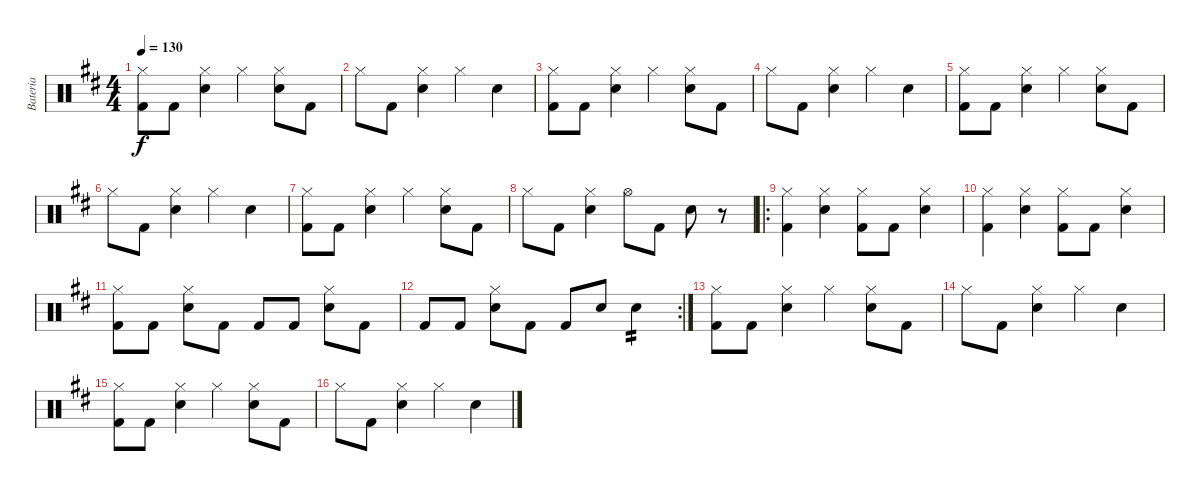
\track ("Bateria" "Bateria") {instrument percussion}
\staff {score}
\articulation defaults
\ts (4 4)
\tempo 130
\clef neutral
\ks d
("Hi-Hat (closed)" "Kick (hit) 2").8{dy f} "Kick (hit) 2".8 ("Hi-Hat (closed)" "Electric Snare (hit)").4 "Hi-Hat (closed)".4 ("Hi-Hat (closed)" "Electric Snare (hit)").8 "Kick (hit) 2".8 |
"Hi-Hat (closed)".8 "Kick (hit) 2".8 ("Hi-Hat (closed)" "Electric Snare (hit)").4 "Hi-Hat (closed)".4 "Electric Snare (hit)".4 |
("Hi-Hat (closed)" "Kick (hit) 2").8 "Kick (hit) 2".8 ("Hi-Hat (closed)" "Electric Snare (hit)").4 "Hi-Hat (closed)".4 ("Hi-Hat (closed)" "Electric Snare (hit)").8 "Kick (hit) 2".8 |
"Hi-Hat (closed)".8 "Kick (hit) 2".8 ("Hi-Hat (closed)" "Electric Snare (hit)").4 "Hi-Hat (closed)".4 "Electric Snare (hit)".4 |
("Hi-Hat (closed)" "Kick (hit) 2").8 "Kick (hit) 2".8 ("Hi-Hat (closed)" "Electric Snare (hit)").4 "Hi-Hat (closed)".4 ("Hi-Hat (closed)" "Electric Snare (hit)").8 "Kick (hit) 2".8 |
"Hi-Hat (closed)".8 "Kick (hit) 2".8 ("Hi-Hat (closed)" "Electric Snare (hit)").4 "Hi-Hat (closed)".4 "Electric Snare (hit)".4 |
("Hi-Hat (closed)" "Kick (hit) 2").8 "Kick (hit) 2".8 ("Hi-Hat (closed)" "Electric Snare (hit)").4 "Hi-Hat (closed)".4 ("Hi-Hat (closed)" "Electric Snare (hit)").8 "Kick (hit) 2".8 |
"Hi-Hat (closed)".8 "Kick (hit) 2".8 ("Hi-Hat (closed)" "Electric Snare (hit)").4 "Hi-Hat (open)".8 "Kick (hit) 2".8 "Electric Snare (hit)".8 r.8 |
\ro
("Hi-Hat (closed)" "Kick (hit) 2").4 ("Hi-Hat (closed)" "Electric Snare (hit)").4 ("Hi-Hat (closed)" "Kick (hit) 2").8 "Kick (hit) 2".8 ("Hi-Hat (closed)" "Electric Snare (hit)").4 |
("Hi-Hat (closed)" "Kick (hit) 2").4 ("Hi-Hat (closed)" "Electric Snare (hit)").4 ("Hi-Hat (closed)" "Kick (hit) 2").8 "Kick (hit) 2".8 ("Hi-Hat (closed)" "Electric Snare (hit)").4 |
("Hi-Hat (closed)" "Kick (hit) 2").8 "Kick (hit) 2".8 ("Hi-Hat (closed)" "Electric Snare (hit)").8 "Kick (hit) 2".8 "Kick (hit) 2".8 "Kick (hit) 2".8 ("Hi-Hat (closed)" "Electric Snare (hit)").8 "Kick (hit) 2".8 |
\rc 2 "Kick (hit) 2".8 "Kick (hit) 2".8
("Hi-Hat (closed)" "Electric Snare (hit)").8 "Kick (hit) 2".8 "Kick (hit) 2".8 "Electric Snare (hit)".8 "Electric Snare (hit)".4{tp 2} |
("Hi-Hat (closed)" "Kick (hit) 2").8 "Kick (hit) 2".8 ("Hi-Hat (closed)" "Electric Snare (hit)").4 "Hi-Hat (closed)".4 ("Hi-Hat (closed)" "Electric Snare (hit)").8 "Kick (hit) 2".8 |
"Hi-Hat (closed)".8 "Kick (hit) 2".8 ("Hi-Hat (closed)" "Electric Snare (hit)").4 "Hi-Hat (closed)".4 "Electric Snare (hit)".4 |
("Hi-Hat (closed)" "Kick (hit) 2").8 "Kick (hit) 2".8 ("Hi-Hat (closed)" "Electric Snare (hit)").4 "Hi-Hat (closed)".4 ("Hi-Hat (closed)" "Electric Snare (hit)").8 "Kick (hit) 2".8 |
"Hi-Hat (closed)".8 "Kick (hit) 2".8 ("Hi-Hat (closed)" "Electric Snare (hit)").4 "Hi-Hat (closed)".4 "Electric Snare (hit)".4
